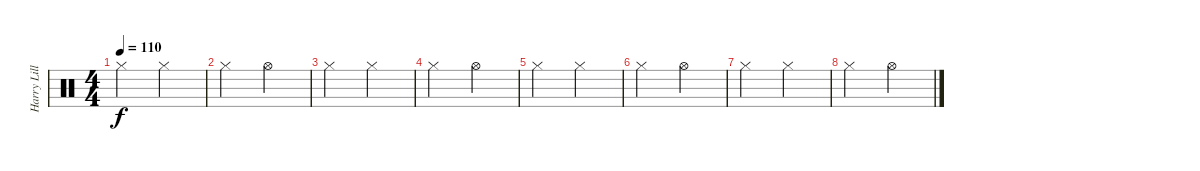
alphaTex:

\track ("Harry Lillevars" "Harry Lill") {instrument percussion}
\staff {score}
\articulation defaults
\ts (4 4)
\tempo 110
\clef neutral
\ks c "Hi-Hat (closed)".2{dy f} "Hi-Hat (closed)".2
|
"Hi-Hat (closed)".2 "Hi-Hat (open)".2 |
"Hi-Hat (closed)".2 "Hi-Hat (closed)".2 |
"Hi-Hat (closed)".2 "Hi-Hat (open)".2 |
"Hi-Hat (closed)".2 "Hi-Hat (closed)".2 |
"Hi-Hat (closed)".2 "Hi-Hat (open)".2 |
"Hi-Hat (closed)".2 "Hi-Hat (closed)".2 |
"Hi-Hat (closed)".2 "Hi-Hat (open)".2
